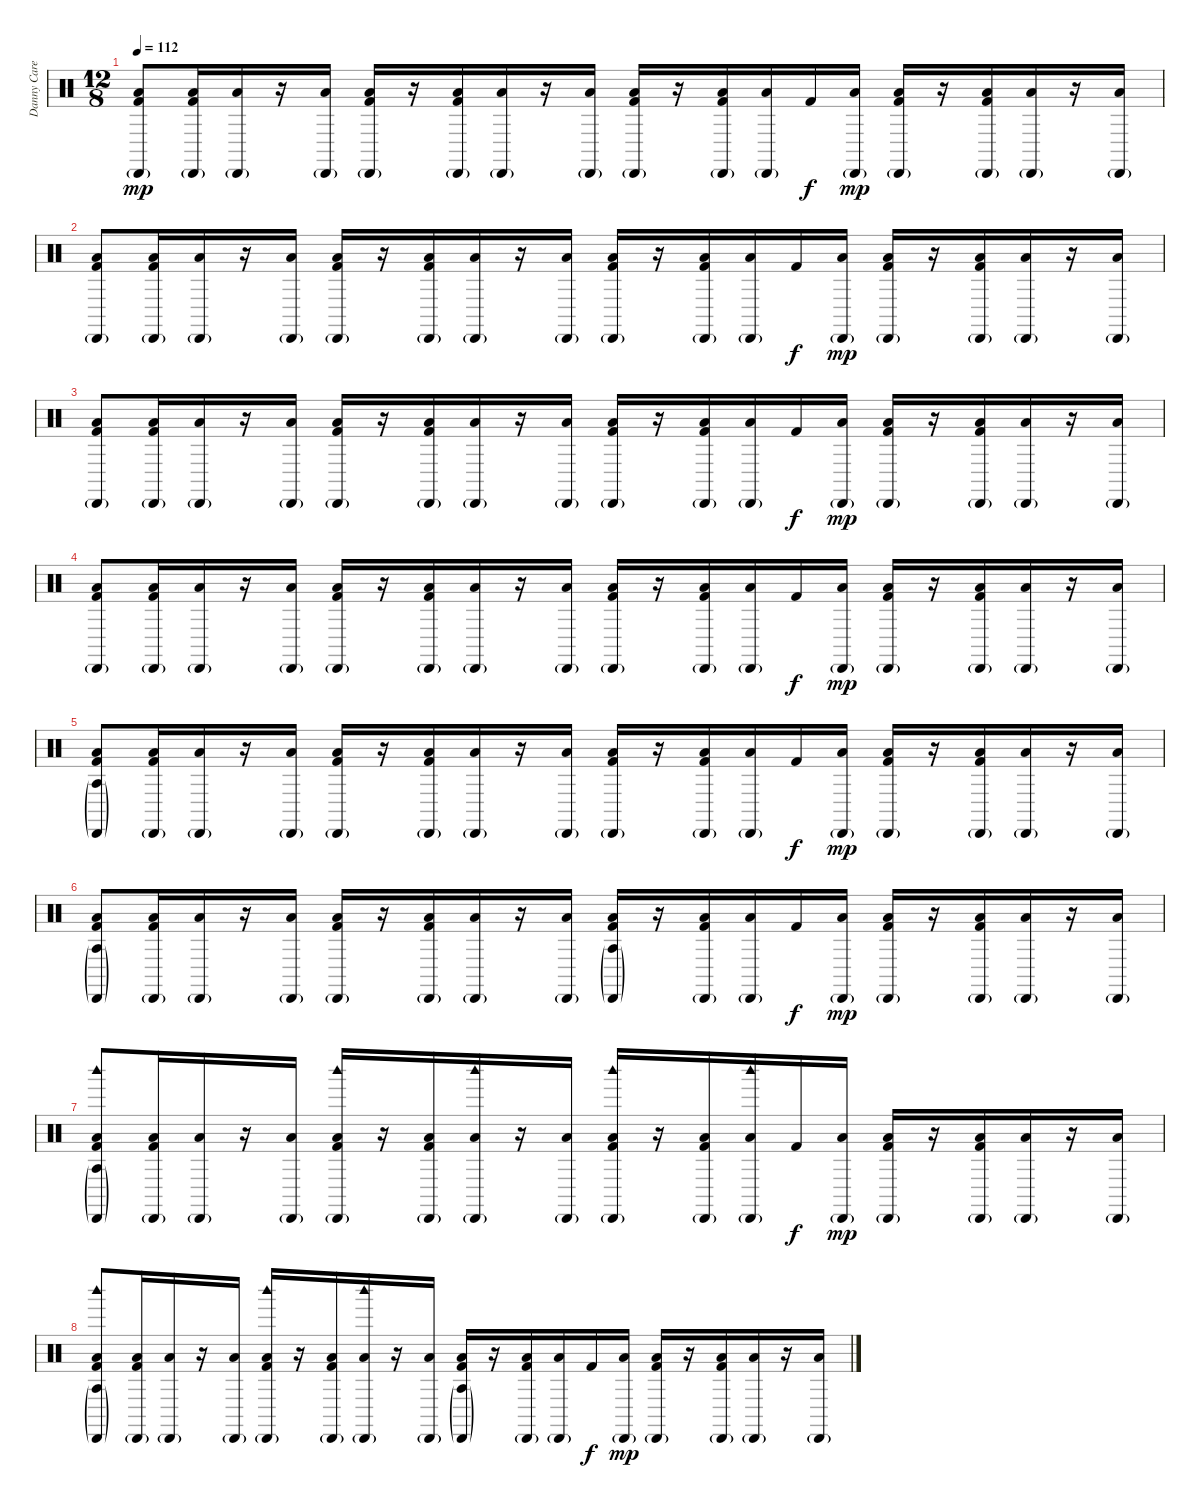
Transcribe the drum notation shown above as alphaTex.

\track ("Danny Carey" "Danny Care") {instrument percussion}
\staff {score}
\articulation defaults
\ts (12 8)
\tempo 112
\clef neutral
\ks c
("Low Floor Tom (hit)" "Cabasa (hit)"{g} "Kick (hit) 2").8{dy mp} ("Low Floor Tom (hit)" "Cabasa (hit)"{g} "Kick (hit) 2").16 ("Low Floor Tom (hit)" "Cabasa (hit)"{g}).16 r.16 ("Low Floor Tom (hit)" "Cabasa (hit)"{g}).16 ("Low Floor Tom (hit)" "Cabasa (hit)"{g} "Kick (hit) 2").16 r.16 ("Low Floor Tom (hit)" "Cabasa (hit)"{g} "Kick (hit) 2").16 ("Low Floor Tom (hit)" "Cabasa (hit)"{g}).16 r.16 ("Low Floor Tom (hit)" "Cabasa (hit)"{g}).16 ("Low Floor Tom (hit)" "Cabasa (hit)"{g} "Kick (hit) 2").16 r.16 ("Low Floor Tom (hit)" "Cabasa (hit)"{g} "Kick (hit) 2").16 ("Low Floor Tom (hit)" "Cabasa (hit)"{g}).16 "Kick (hit) 2".16{dy f} ("Low Floor Tom (hit)" "Cabasa (hit)"{g}).16{dy mp} ("Low Floor Tom (hit)" "Cabasa (hit)"{g} "Kick (hit) 2").16 r.16 ("Low Floor Tom (hit)" "Cabasa (hit)"{g} "Kick (hit) 2").16 ("Low Floor Tom (hit)" "Cabasa (hit)"{g}).16 r.16 ("Low Floor Tom (hit)" "Cabasa (hit)"{g}).16 |
("Low Floor Tom (hit)" "Cabasa (hit)"{g} "Kick (hit) 2").8 ("Low Floor Tom (hit)" "Cabasa (hit)"{g} "Kick (hit) 2").16 ("Low Floor Tom (hit)" "Cabasa (hit)"{g}).16 r.16 ("Low Floor Tom (hit)" "Cabasa (hit)"{g}).16 ("Low Floor Tom (hit)" "Cabasa (hit)"{g} "Kick (hit) 2").16 r.16 ("Low Floor Tom (hit)" "Cabasa (hit)"{g} "Kick (hit) 2").16 ("Low Floor Tom (hit)" "Cabasa (hit)"{g}).16 r.16 ("Low Floor Tom (hit)" "Cabasa (hit)"{g}).16 ("Low Floor Tom (hit)" "Cabasa (hit)"{g} "Kick (hit) 2").16 r.16 ("Low Floor Tom (hit)" "Cabasa (hit)"{g} "Kick (hit) 2").16 ("Low Floor Tom (hit)" "Cabasa (hit)"{g}).16 "Kick (hit) 2".16{dy f} ("Low Floor Tom (hit)" "Cabasa (hit)"{g}).16{dy mp} ("Low Floor Tom (hit)" "Cabasa (hit)"{g} "Kick (hit) 2").16 r.16 ("Low Floor Tom (hit)" "Cabasa (hit)"{g} "Kick (hit) 2").16 ("Low Floor Tom (hit)" "Cabasa (hit)"{g}).16 r.16 ("Low Floor Tom (hit)" "Cabasa (hit)"{g}).16 |
("Low Floor Tom (hit)" "Cabasa (hit)"{g} "Kick (hit) 2").8 ("Low Floor Tom (hit)" "Cabasa (hit)"{g} "Kick (hit) 2").16 ("Low Floor Tom (hit)" "Cabasa (hit)"{g}).16 r.16 ("Low Floor Tom (hit)" "Cabasa (hit)"{g}).16 ("Low Floor Tom (hit)" "Cabasa (hit)"{g} "Kick (hit) 2").16 r.16 ("Low Floor Tom (hit)" "Cabasa (hit)"{g} "Kick (hit) 2").16 ("Low Floor Tom (hit)" "Cabasa (hit)"{g}).16 r.16 ("Low Floor Tom (hit)" "Cabasa (hit)"{g}).16 ("Low Floor Tom (hit)" "Cabasa (hit)"{g} "Kick (hit) 2").16 r.16 ("Low Floor Tom (hit)" "Cabasa (hit)"{g} "Kick (hit) 2").16 ("Low Floor Tom (hit)" "Cabasa (hit)"{g}).16 "Kick (hit) 2".16{dy f} ("Low Floor Tom (hit)" "Cabasa (hit)"{g}).16{dy mp} ("Low Floor Tom (hit)" "Cabasa (hit)"{g} "Kick (hit) 2").16 r.16 ("Low Floor Tom (hit)" "Cabasa (hit)"{g} "Kick (hit) 2").16 ("Low Floor Tom (hit)" "Cabasa (hit)"{g}).16 r.16 ("Low Floor Tom (hit)" "Cabasa (hit)"{g}).16 |
("Low Floor Tom (hit)" "Cabasa (hit)"{g} "Kick (hit) 2").8 ("Low Floor Tom (hit)" "Cabasa (hit)"{g} "Kick (hit) 2").16 ("Low Floor Tom (hit)" "Cabasa (hit)"{g}).16 r.16 ("Low Floor Tom (hit)" "Cabasa (hit)"{g}).16 ("Low Floor Tom (hit)" "Cabasa (hit)"{g} "Kick (hit) 2").16 r.16 ("Low Floor Tom (hit)" "Cabasa (hit)"{g} "Kick (hit) 2").16 ("Low Floor Tom (hit)" "Cabasa (hit)"{g}).16 r.16 ("Low Floor Tom (hit)" "Cabasa (hit)"{g}).16 ("Low Floor Tom (hit)" "Cabasa (hit)"{g} "Kick (hit) 2").16 r.16 ("Low Floor Tom (hit)" "Cabasa (hit)"{g} "Kick (hit) 2").16 ("Low Floor Tom (hit)" "Cabasa (hit)"{g}).16 "Kick (hit) 2".16{dy f} ("Low Floor Tom (hit)" "Cabasa (hit)"{g}).16{dy mp} ("Low Floor Tom (hit)" "Cabasa (hit)"{g} "Kick (hit) 2").16 r.16 ("Low Floor Tom (hit)" "Cabasa (hit)"{g} "Kick (hit) 2").16 ("Low Floor Tom (hit)" "Cabasa (hit)"{g}).16 r.16 ("Low Floor Tom (hit)" "Cabasa (hit)"{g}).16 |
("Low Floor Tom (hit)" "Cabasa (hit)"{g} "Agogo tow (hit)"{g} "Kick (hit) 2").8 ("Low Floor Tom (hit)" "Cabasa (hit)"{g} "Kick (hit) 2").16 ("Low Floor Tom (hit)" "Cabasa (hit)"{g}).16 r.16 ("Low Floor Tom (hit)" "Cabasa (hit)"{g}).16 ("Low Floor Tom (hit)" "Cabasa (hit)"{g} "Kick (hit) 2").16 r.16 ("Low Floor Tom (hit)" "Cabasa (hit)"{g} "Kick (hit) 2").16 ("Low Floor Tom (hit)" "Cabasa (hit)"{g}).16 r.16 ("Low Floor Tom (hit)" "Cabasa (hit)"{g}).16 ("Low Floor Tom (hit)" "Cabasa (hit)"{g} "Kick (hit) 2").16 r.16 ("Low Floor Tom (hit)" "Cabasa (hit)"{g} "Kick (hit) 2").16 ("Low Floor Tom (hit)" "Cabasa (hit)"{g}).16 "Kick (hit) 2".16{dy f} ("Low Floor Tom (hit)" "Cabasa (hit)"{g}).16{dy mp} ("Low Floor Tom (hit)" "Cabasa (hit)"{g} "Kick (hit) 2").16 r.16 ("Low Floor Tom (hit)" "Cabasa (hit)"{g} "Kick (hit) 2").16 ("Low Floor Tom (hit)" "Cabasa (hit)"{g}).16 r.16 ("Low Floor Tom (hit)" "Cabasa (hit)"{g}).16 |
("Low Floor Tom (hit)" "Cabasa (hit)"{g} "Agogo tow (hit)"{g} "Kick (hit) 2").8 ("Low Floor Tom (hit)" "Cabasa (hit)"{g} "Kick (hit) 2").16 ("Low Floor Tom (hit)" "Cabasa (hit)"{g}).16 r.16 ("Low Floor Tom (hit)" "Cabasa (hit)"{g}).16 ("Low Floor Tom (hit)" "Cabasa (hit)"{g} "Kick (hit) 2").16 r.16 ("Low Floor Tom (hit)" "Cabasa (hit)"{g} "Kick (hit) 2").16 ("Low Floor Tom (hit)" "Cabasa (hit)"{g}).16 r.16 ("Low Floor Tom (hit)" "Cabasa (hit)"{g}).16 ("Low Floor Tom (hit)" "Cabasa (hit)"{g} "Agogo tow (hit)"{g} "Kick (hit) 2").16 r.16 ("Low Floor Tom (hit)" "Cabasa (hit)"{g} "Kick (hit) 2").16 ("Low Floor Tom (hit)" "Cabasa (hit)"{g}).16 "Kick (hit) 2".16{dy f} ("Low Floor Tom (hit)" "Cabasa (hit)"{g}).16{dy mp} ("Low Floor Tom (hit)" "Cabasa (hit)"{g} "Kick (hit) 2").16 r.16 ("Low Floor Tom (hit)" "Cabasa (hit)"{g} "Kick (hit) 2").16 ("Low Floor Tom (hit)" "Cabasa (hit)"{g}).16 r.16 ("Low Floor Tom (hit)" "Cabasa (hit)"{g}).16 |
("Low Floor Tom (hit)" "Agogo tow (hit)"{g} "Cabasa (hit)"{g} "Woodblock high (hit)" "Kick (hit) 2").8 ("Low Floor Tom (hit)" "Cabasa (hit)"{g} "Kick (hit) 2").16 ("Low Floor Tom (hit)" "Cabasa (hit)"{g}).16 r.16 ("Low Floor Tom (hit)" "Cabasa (hit)"{g}).16 ("Low Floor Tom (hit)" "Cabasa (hit)"{g} "Woodblock high (hit)" "Kick (hit) 2").16 r.16 ("Low Floor Tom (hit)" "Cabasa (hit)"{g} "Kick (hit) 2").16 ("Low Floor Tom (hit)" "Cabasa (hit)"{g} "Woodblock high (hit)").16 r.16 ("Low Floor Tom (hit)" "Cabasa (hit)"{g}).16 ("Low Floor Tom (hit)" "Cabasa (hit)"{g} "Woodblock high (hit)" "Kick (hit) 2").16 r.16 ("Low Floor Tom (hit)" "Cabasa (hit)"{g} "Kick (hit) 2").16 ("Low Floor Tom (hit)" "Cabasa (hit)"{g} "Woodblock high (hit)").16 "Kick (hit) 2".16{dy f} ("Low Floor Tom (hit)" "Cabasa (hit)"{g}).16{dy mp} ("Low Floor Tom (hit)" "Cabasa (hit)"{g} "Kick (hit) 2").16 r.16 ("Low Floor Tom (hit)" "Cabasa (hit)"{g} "Kick (hit) 2").16 ("Low Floor Tom (hit)" "Cabasa (hit)"{g}).16 r.16 ("Low Floor Tom (hit)" "Cabasa (hit)"{g}).16 |
("Low Floor Tom (hit)" "Agogo tow (hit)"{g} "Cabasa (hit)"{g} "Woodblock high (hit)" "Kick (hit) 2").8 ("Low Floor Tom (hit)" "Cabasa (hit)"{g} "Kick (hit) 2").16 ("Low Floor Tom (hit)" "Cabasa (hit)"{g}).16 r.16 ("Low Floor Tom (hit)" "Cabasa (hit)"{g}).16 ("Low Floor Tom (hit)" "Cabasa (hit)"{g} "Woodblock high (hit)" "Kick (hit) 2").16 r.16 ("Low Floor Tom (hit)" "Cabasa (hit)"{g} "Kick (hit) 2").16 ("Low Floor Tom (hit)" "Cabasa (hit)"{g} "Woodblock high (hit)").16 r.16 ("Low Floor Tom (hit)" "Cabasa (hit)"{g}).16 ("Low Floor Tom (hit)" "Agogo tow (hit)"{g} "Cabasa (hit)"{g} "Kick (hit) 2").16 r.16 ("Low Floor Tom (hit)" "Cabasa (hit)"{g} "Kick (hit) 2").16 ("Low Floor Tom (hit)" "Cabasa (hit)"{g}).16 "Kick (hit) 2".16{dy f} ("Low Floor Tom (hit)" "Cabasa (hit)"{g}).16{dy mp} ("Low Floor Tom (hit)" "Cabasa (hit)"{g} "Kick (hit) 2").16 r.16 ("Low Floor Tom (hit)" "Cabasa (hit)"{g} "Kick (hit) 2").16 ("Low Floor Tom (hit)" "Cabasa (hit)"{g}).16 r.16 ("Low Floor Tom (hit)" "Cabasa (hit)"{g}).16
